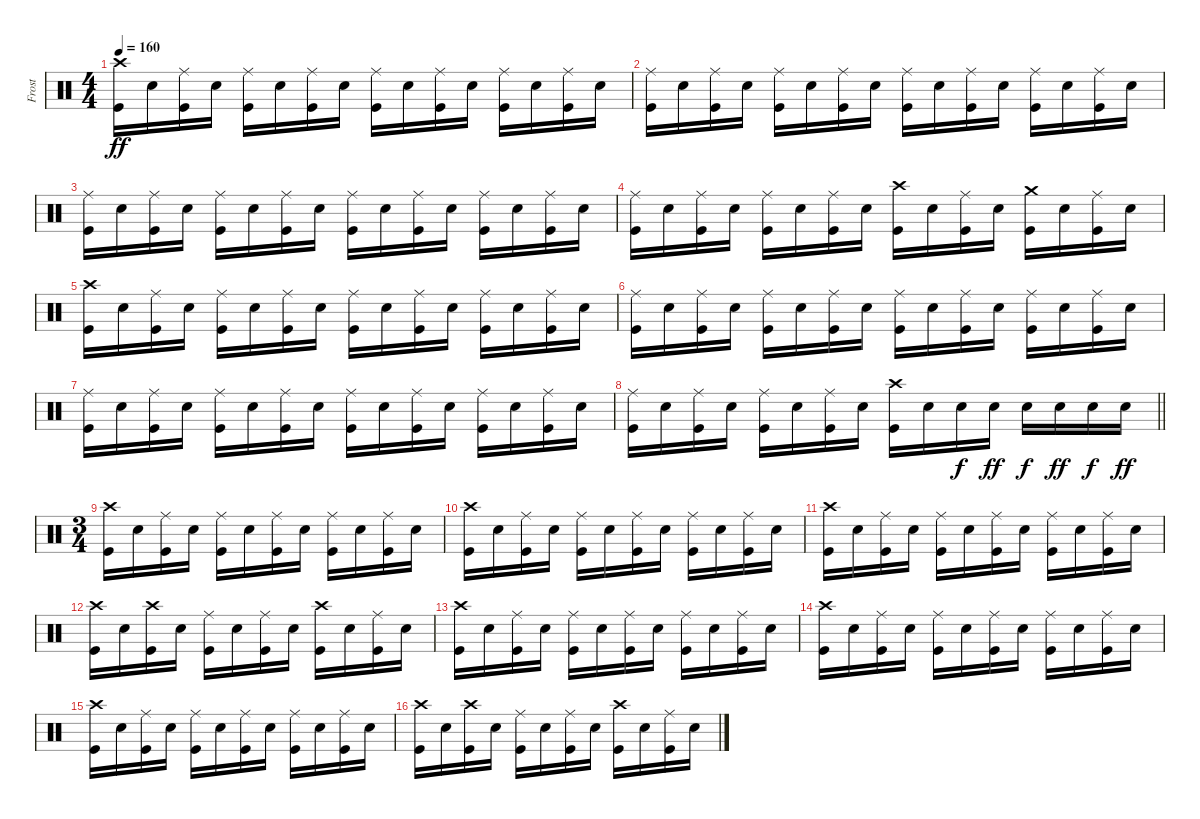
\track ("Frost" "Frost") {instrument percussion}
\staff {score}
\articulation defaults
\ts (4 4)
\tempo 160
\clef neutral
\ks c
("Crash high (hit)" "Kick (hit)").16{dy ff} "Snare (hit) 2".16 ("Ride (middle)" "Kick (hit)").16 "Snare (hit) 2".16 ("Ride (middle)" "Kick (hit)").16 "Snare (hit) 2".16 ("Ride (middle)" "Kick (hit)").16 "Snare (hit) 2".16 ("Ride (middle)" "Kick (hit)").16 "Snare (hit) 2".16 ("Ride (middle)" "Kick (hit)").16 "Snare (hit) 2".16 ("Ride (middle)" "Kick (hit)").16 "Snare (hit) 2".16 ("Ride (middle)" "Kick (hit)").16 "Snare (hit) 2".16 |
("Ride (middle)" "Kick (hit)").16 "Snare (hit) 2".16 ("Ride (middle)" "Kick (hit)").16 "Snare (hit) 2".16 ("Ride (middle)" "Kick (hit)").16 "Snare (hit) 2".16 ("Ride (middle)" "Kick (hit)").16 "Snare (hit) 2".16 ("Ride (middle)" "Kick (hit)").16 "Snare (hit) 2".16 ("Ride (middle)" "Kick (hit)").16 "Snare (hit) 2".16 ("Ride (middle)" "Kick (hit)").16 "Snare (hit) 2".16 ("Ride (middle)" "Kick (hit)").16 "Snare (hit) 2".16 |
("Ride (middle)" "Kick (hit)").16 "Snare (hit) 2".16 ("Ride (middle)" "Kick (hit)").16 "Snare (hit) 2".16 ("Ride (middle)" "Kick (hit)").16 "Snare (hit) 2".16 ("Ride (middle)" "Kick (hit)").16 "Snare (hit) 2".16 ("Ride (middle)" "Kick (hit)").16 "Snare (hit) 2".16 ("Ride (middle)" "Kick (hit)").16 "Snare (hit) 2".16 ("Ride (middle)" "Kick (hit)").16 "Snare (hit) 2".16 ("Ride (middle)" "Kick (hit)").16 "Snare (hit) 2".16 |
("Ride (middle)" "Kick (hit)").16 "Snare (hit) 2".16 ("Ride (middle)" "Kick (hit)").16 "Snare (hit) 2".16 ("Ride (middle)" "Kick (hit)").16 "Snare (hit) 2".16 ("Ride (middle)" "Kick (hit)").16 "Snare (hit) 2".16 ("Crash high (hit)" "Kick (hit)").16 "Snare (hit) 2".16 ("Ride (middle)" "Kick (hit)").16 "Snare (hit) 2".16 ("Crash medium (hit)" "Kick (hit)").16 "Snare (hit) 2".16 ("Ride (middle)" "Kick (hit)").16 "Snare (hit) 2".16 |
("Crash high (hit)" "Kick (hit)").16 "Snare (hit) 2".16 ("Ride (middle)" "Kick (hit)").16 "Snare (hit) 2".16 ("Ride (middle)" "Kick (hit)").16 "Snare (hit) 2".16 ("Ride (middle)" "Kick (hit)").16 "Snare (hit) 2".16 ("Ride (middle)" "Kick (hit)").16 "Snare (hit) 2".16 ("Ride (middle)" "Kick (hit)").16 "Snare (hit) 2".16 ("Ride (middle)" "Kick (hit)").16 "Snare (hit) 2".16 ("Ride (middle)" "Kick (hit)").16 "Snare (hit) 2".16 |
("Ride (middle)" "Kick (hit)").16 "Snare (hit) 2".16 ("Ride (middle)" "Kick (hit)").16 "Snare (hit) 2".16 ("Ride (middle)" "Kick (hit)").16 "Snare (hit) 2".16 ("Ride (middle)" "Kick (hit)").16 "Snare (hit) 2".16 ("Ride (middle)" "Kick (hit)").16 "Snare (hit) 2".16 ("Ride (middle)" "Kick (hit)").16 "Snare (hit) 2".16 ("Ride (middle)" "Kick (hit)").16 "Snare (hit) 2".16 ("Ride (middle)" "Kick (hit)").16 "Snare (hit) 2".16 |
("Ride (middle)" "Kick (hit)").16 "Snare (hit) 2".16 ("Ride (middle)" "Kick (hit)").16 "Snare (hit) 2".16 ("Ride (middle)" "Kick (hit)").16 "Snare (hit) 2".16 ("Ride (middle)" "Kick (hit)").16 "Snare (hit) 2".16 ("Ride (middle)" "Kick (hit)").16 "Snare (hit) 2".16 ("Ride (middle)" "Kick (hit)").16 "Snare (hit) 2".16 ("Ride (middle)" "Kick (hit)").16 "Snare (hit) 2".16 ("Ride (middle)" "Kick (hit)").16 "Snare (hit) 2".16 |
\barLineRight lightlight
("Ride (middle)" "Kick (hit)").16 "Snare (hit) 2".16 ("Ride (middle)" "Kick (hit)").16 "Snare (hit) 2".16 ("Ride (middle)" "Kick (hit)").16 "Snare (hit) 2".16 ("Ride (middle)" "Kick (hit)").16 "Snare (hit) 2".16 ("Crash high (hit)" "Kick (hit)").16 "Snare (hit) 2".16 "Snare (hit) 2".16{dy f} "Snare (hit) 2".16{dy ff} "Snare (hit) 2".16{dy f} "Snare (hit) 2".16{dy ff} "Snare (hit) 2".16{dy f} "Snare (hit) 2".16{dy ff} |
\ts (3 4)
("Crash high (hit)" "Kick (hit)").16 "Snare (hit) 2".16 ("Ride (middle)" "Kick (hit)").16 "Snare (hit) 2".16 ("Ride (middle)" "Kick (hit)").16 "Snare (hit) 2".16 ("Ride (middle)" "Kick (hit)").16 "Snare (hit) 2".16 ("Ride (middle)" "Kick (hit)").16 "Snare (hit) 2".16 ("Ride (middle)" "Kick (hit)").16 "Snare (hit) 2".16 |
("Crash high (hit)" "Kick (hit)").16 "Snare (hit) 2".16 ("Ride (middle)" "Kick (hit)").16 "Snare (hit) 2".16 ("Ride (middle)" "Kick (hit)").16 "Snare (hit) 2".16 ("Ride (middle)" "Kick (hit)").16 "Snare (hit) 2".16 ("Ride (middle)" "Kick (hit)").16 "Snare (hit) 2".16 ("Ride (middle)" "Kick (hit)").16 "Snare (hit) 2".16 |
("Crash high (hit)" "Kick (hit)").16 "Snare (hit) 2".16 ("Ride (middle)" "Kick (hit)").16 "Snare (hit) 2".16 ("Ride (middle)" "Kick (hit)").16 "Snare (hit) 2".16 ("Ride (middle)" "Kick (hit)").16 "Snare (hit) 2".16 ("Ride (middle)" "Kick (hit)").16 "Snare (hit) 2".16 ("Ride (middle)" "Kick (hit)").16 "Snare (hit) 2".16 |
("Crash high (hit)" "Kick (hit)").16 "Snare (hit) 2".16 ("Crash high (hit)" "Kick (hit)").16 "Snare (hit) 2".16 ("Ride (middle)" "Kick (hit)").16 "Snare (hit) 2".16 ("Ride (middle)" "Kick (hit)").16 "Snare (hit) 2".16 ("Crash high (hit)" "Kick (hit)").16 "Snare (hit) 2".16 ("Ride (middle)" "Kick (hit)").16 "Snare (hit) 2".16 |
("Crash high (hit)" "Kick (hit)").16 "Snare (hit) 2".16 ("Ride (middle)" "Kick (hit)").16 "Snare (hit) 2".16 ("Ride (middle)" "Kick (hit)").16 "Snare (hit) 2".16 ("Ride (middle)" "Kick (hit)").16 "Snare (hit) 2".16 ("Ride (middle)" "Kick (hit)").16 "Snare (hit) 2".16 ("Ride (middle)" "Kick (hit)").16 "Snare (hit) 2".16 |
("Crash high (hit)" "Kick (hit)").16 "Snare (hit) 2".16 ("Ride (middle)" "Kick (hit)").16 "Snare (hit) 2".16 ("Ride (middle)" "Kick (hit)").16 "Snare (hit) 2".16 ("Ride (middle)" "Kick (hit)").16 "Snare (hit) 2".16 ("Ride (middle)" "Kick (hit)").16 "Snare (hit) 2".16 ("Ride (middle)" "Kick (hit)").16 "Snare (hit) 2".16 |
("Crash high (hit)" "Kick (hit)").16 "Snare (hit) 2".16 ("Ride (middle)" "Kick (hit)").16 "Snare (hit) 2".16 ("Ride (middle)" "Kick (hit)").16 "Snare (hit) 2".16 ("Ride (middle)" "Kick (hit)").16 "Snare (hit) 2".16 ("Ride (middle)" "Kick (hit)").16 "Snare (hit) 2".16 ("Ride (middle)" "Kick (hit)").16 "Snare (hit) 2".16 |
("Crash high (hit)" "Kick (hit)").16 "Snare (hit) 2".16 ("Crash high (hit)" "Kick (hit)").16 "Snare (hit) 2".16 ("Ride (middle)" "Kick (hit)").16 "Snare (hit) 2".16 ("Ride (middle)" "Kick (hit)").16 "Snare (hit) 2".16 ("Crash high (hit)" "Kick (hit)").16 "Snare (hit) 2".16 ("Ride (middle)" "Kick (hit)").16 "Snare (hit) 2".16
